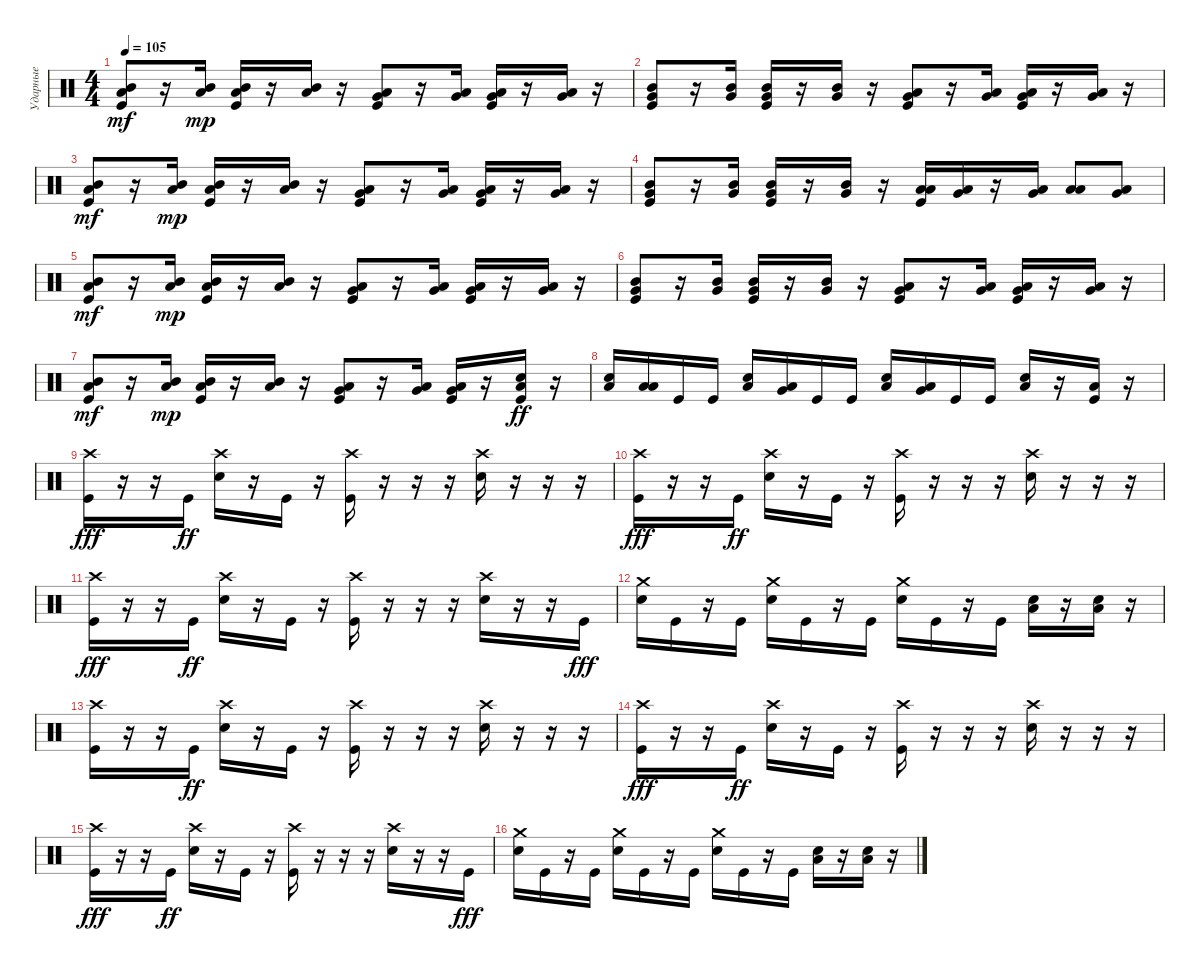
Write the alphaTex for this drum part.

\track ("Ударные" "Ударные") {instrument percussion}
\staff {score}
\articulation defaults
\ts (4 4)
\tempo 105
\clef neutral
\ks c
("Mid Tom (hit)" "Low Tom (hit)" "Kick (hit)").8{dy mf} r.16 ("Mid Tom (hit)" "Low Tom (hit)").16{dy mp} ("Mid Tom (hit)" "Low Tom (hit)" "Kick (hit)").16 r.16 ("Mid Tom (hit)" "Low Tom (hit)").16 r.16 ("Low Tom (hit)" "Very Low Tom (hit)" "Kick (hit)").8 r.16 ("Low Tom (hit)" "Very Low Tom (hit)").16 ("Low Tom (hit)" "Very Low Tom (hit)" "Kick (hit)").16 r.16 ("Low Tom (hit)" "Very Low Tom (hit)").16 r.16 |
("Mid Tom (hit)" "Very Low Tom (hit)" "Kick (hit)").8 r.16 ("Mid Tom (hit)" "Very Low Tom (hit)").16 ("Mid Tom (hit)" "Very Low Tom (hit)" "Kick (hit)").16 r.16 ("Mid Tom (hit)" "Very Low Tom (hit)").16 r.16 ("Very Low Tom (hit)" "Low Floor Tom (hit)" "Kick (hit)").8 r.16 ("Very Low Tom (hit)" "Low Floor Tom (hit)").16 ("Very Low Tom (hit)" "Low Floor Tom (hit)" "Kick (hit)").16 r.16 ("Very Low Tom (hit)" "Low Floor Tom (hit)").16 r.16 |
("Mid Tom (hit)" "Low Tom (hit)" "Kick (hit)").8{dy mf} r.16 ("Mid Tom (hit)" "Low Tom (hit)").16{dy mp} ("Mid Tom (hit)" "Low Tom (hit)" "Kick (hit)").16 r.16 ("Mid Tom (hit)" "Low Tom (hit)").16 r.16 ("Low Tom (hit)" "Very Low Tom (hit)" "Kick (hit)").8 r.16 ("Low Tom (hit)" "Very Low Tom (hit)").16 ("Low Tom (hit)" "Very Low Tom (hit)" "Kick (hit)").16 r.16 ("Low Tom (hit)" "Very Low Tom (hit)").16 r.16 |
("Mid Tom (hit)" "Very Low Tom (hit)" "Kick (hit)").8 r.16 ("Mid Tom (hit)" "Very Low Tom (hit)").16 ("Mid Tom (hit)" "Very Low Tom (hit)" "Kick (hit)").16 r.16 ("Mid Tom (hit)" "Very Low Tom (hit)").16 r.16 ("Low Tom (hit)" "Low Floor Tom (hit)" "Kick (hit)").16 ("Very Low Tom (hit)" "Low Floor Tom (hit)").16 r.16 ("Very Low Tom (hit)" "Low Floor Tom (hit)").16 ("Low Tom (hit)" "Low Floor Tom (hit)").8 ("Very Low Tom (hit)" "Low Floor Tom (hit)").8 |
("Mid Tom (hit)" "Low Tom (hit)" "Kick (hit)").8{dy mf} r.16 ("Mid Tom (hit)" "Low Tom (hit)").16{dy mp} ("Mid Tom (hit)" "Low Tom (hit)" "Kick (hit)").16 r.16 ("Mid Tom (hit)" "Low Tom (hit)").16 r.16 ("Low Tom (hit)" "Very Low Tom (hit)" "Kick (hit)").8 r.16 ("Low Tom (hit)" "Very Low Tom (hit)").16 ("Low Tom (hit)" "Very Low Tom (hit)" "Kick (hit)").16 r.16 ("Low Tom (hit)" "Very Low Tom (hit)").16 r.16 |
("Mid Tom (hit)" "Very Low Tom (hit)" "Kick (hit)").8 r.16 ("Mid Tom (hit)" "Very Low Tom (hit)").16 ("Mid Tom (hit)" "Very Low Tom (hit)" "Kick (hit)").16 r.16 ("Mid Tom (hit)" "Very Low Tom (hit)").16 r.16 ("Very Low Tom (hit)" "Low Floor Tom (hit)" "Kick (hit)").8 r.16 ("Very Low Tom (hit)" "Low Floor Tom (hit)").16 ("Very Low Tom (hit)" "Low Floor Tom (hit)" "Kick (hit)").16 r.16 ("Very Low Tom (hit)" "Low Floor Tom (hit)").16 r.16 |
("Mid Tom (hit)" "Low Tom (hit)" "Kick (hit)").8{dy mf} r.16 ("Mid Tom (hit)" "Low Tom (hit)").16{dy mp} ("Mid Tom (hit)" "Low Tom (hit)" "Kick (hit)").16 r.16 ("Mid Tom (hit)" "Low Tom (hit)").16 r.16 ("Low Tom (hit)" "Very Low Tom (hit)" "Kick (hit)").8 r.16 ("Low Tom (hit)" "Very Low Tom (hit)").16 ("Low Tom (hit)" "Very Low Tom (hit)" "Kick (hit)").16 r.16 ("Low Floor Tom (hit)" "Snare (hit)" "Kick (hit)").16{dy ff} r.16 |
("Electric Snare (hit)" "Low Floor Tom (hit)").16{balance 8} ("Low Floor Tom (hit)" "Low Floor Tom (hit)").16 "Kick (hit)".16 "Kick (hit)".16 ("Electric Snare (hit)" "Low Floor Tom (hit)").16 ("Low Floor Tom (hit)" "Very Low Tom (hit)").16 "Kick (hit)".16 "Kick (hit)".16 ("Electric Snare (hit)" "Low Floor Tom (hit)").16 ("Low Floor Tom (hit)" "Very Low Tom (hit)").16 "Kick (hit)".16 "Kick (hit)".16 ("Electric Snare (hit)" "Low Floor Tom (hit)").16 r.16 ("Low Floor Tom (hit)" "Kick (hit)").16 r.16 |
("Crash high (hit)" "Kick (hit)").16{dy fff} r.16 r.16 "Kick (hit)".16{dy ff} ("Crash high (hit)" "Electric Snare (hit)").16 r.16 "Kick (hit)".16 r.16 ("Crash high (hit)" "Kick (hit)").16 r.16 r.16 r.16 ("Crash high (hit)" "Electric Snare (hit)").16 r.16 r.16 r.16 |
("Crash high (hit)" "Kick (hit)").16{dy fff} r.16 r.16 "Kick (hit)".16{dy ff} ("Crash high (hit)" "Electric Snare (hit)").16 r.16 "Kick (hit)".16 r.16 ("Crash high (hit)" "Kick (hit)").16 r.16 r.16 r.16 ("Crash high (hit)" "Electric Snare (hit)").16 r.16 r.16 r.16 |
("Crash high (hit)" "Kick (hit)").16{dy fff} r.16 r.16 "Kick (hit)".16{dy ff} ("Crash high (hit)" "Electric Snare (hit)").16 r.16 "Kick (hit)".16 r.16 ("Crash high (hit)" "Kick (hit)").16 r.16 r.16 r.16 ("Crash high (hit)" "Electric Snare (hit)").16 r.16 r.16 "Kick (hit)".16{dy fff} |
("Crash medium (hit)" "Electric Snare (hit)").16 "Kick (hit)".16 r.16 "Kick (hit)".16 ("Crash medium (hit)" "Electric Snare (hit)").16 "Kick (hit)".16 r.16 "Kick (hit)".16 ("Crash medium (hit)" "Electric Snare (hit)").16 "Kick (hit)".16 r.16 "Kick (hit)".16 ("Electric Snare (hit)" "Low Floor Tom (hit)").16 r.16 ("Electric Snare (hit)" "Low Floor Tom (hit)").16 r.16 |
("Crash high (hit)" "Kick (hit)").16 r.16 r.16 "Kick (hit)".16{dy ff} ("Crash high (hit)" "Electric Snare (hit)").16 r.16 "Kick (hit)".16 r.16 ("Crash high (hit)" "Kick (hit)").16 r.16 r.16 r.16 ("Crash high (hit)" "Electric Snare (hit)").16 r.16 r.16 r.16 |
("Crash high (hit)" "Kick (hit)").16{dy fff} r.16 r.16 "Kick (hit)".16{dy ff} ("Crash high (hit)" "Electric Snare (hit)").16 r.16 "Kick (hit)".16 r.16 ("Crash high (hit)" "Kick (hit)").16 r.16 r.16 r.16 ("Crash high (hit)" "Electric Snare (hit)").16 r.16 r.16 r.16 |
("Crash high (hit)" "Kick (hit)").16{dy fff} r.16 r.16 "Kick (hit)".16{dy ff} ("Crash high (hit)" "Electric Snare (hit)").16 r.16 "Kick (hit)".16 r.16 ("Crash high (hit)" "Kick (hit)").16 r.16 r.16 r.16 ("Crash high (hit)" "Electric Snare (hit)").16 r.16 r.16 "Kick (hit)".16{dy fff} |
("Crash medium (hit)" "Electric Snare (hit)").16 "Kick (hit)".16 r.16 "Kick (hit)".16 ("Crash medium (hit)" "Electric Snare (hit)").16 "Kick (hit)".16 r.16 "Kick (hit)".16 ("Crash medium (hit)" "Electric Snare (hit)").16 "Kick (hit)".16 r.16 "Kick (hit)".16 ("Electric Snare (hit)" "Low Floor Tom (hit)").16 r.16 ("Electric Snare (hit)" "Low Floor Tom (hit)").16 r.16
